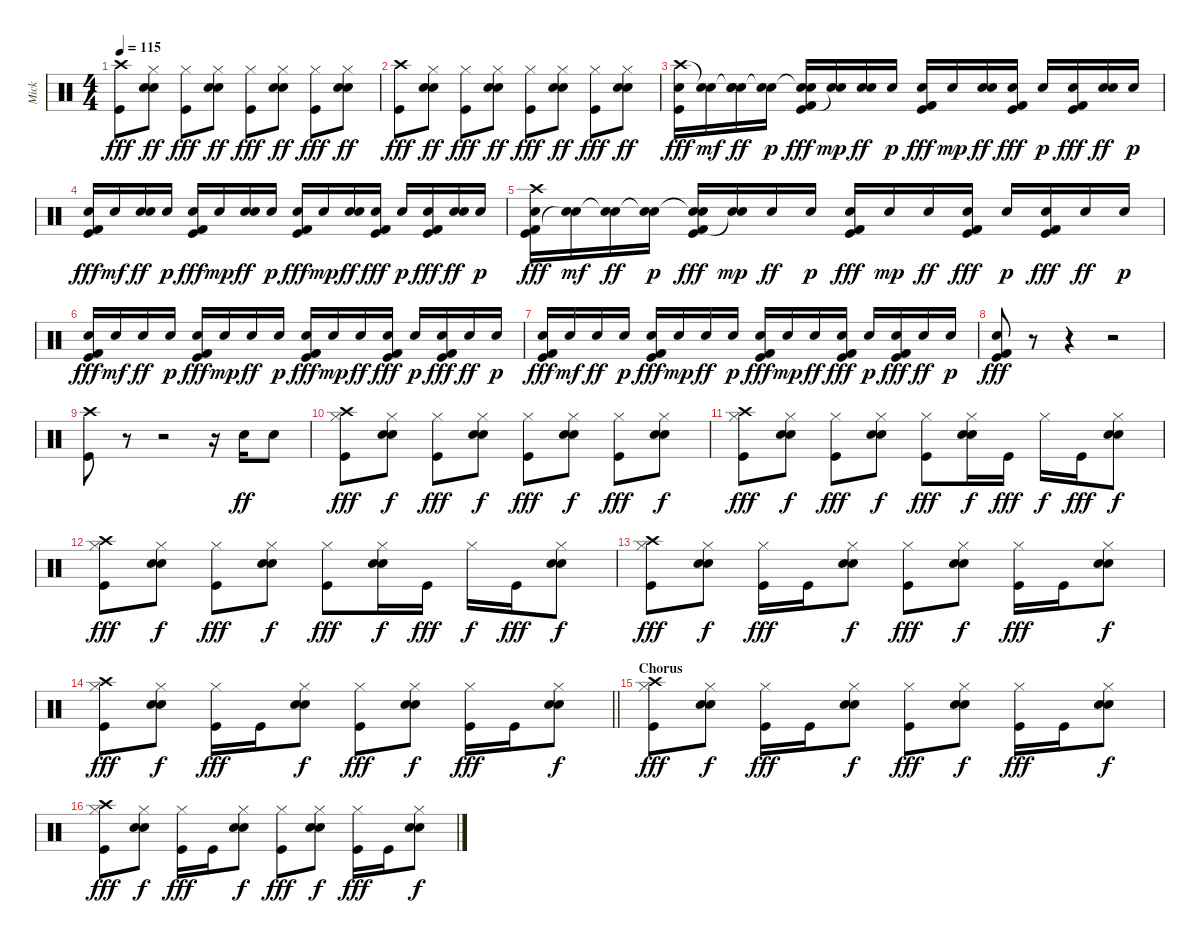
\track ("Mick" "Mick") {instrument percussion}
\staff {score}
\articulation defaults
\ts (4 4)
\tempo 115
\clef neutral
\ks c
("Crash high (hit)" "Kick (hit)").8{dy fff} ("Hand Clap (hit)" "Hi-Hat (closed)" "Electric Snare (hit)").8{dy ff} ("Hi-Hat (closed)" "Kick (hit)").8{dy fff} ("Hand Clap (hit)" "Hi-Hat (closed)" "Electric Snare (hit)").8{dy ff} ("Hi-Hat (closed)" "Kick (hit)").8{dy fff} ("Hand Clap (hit)" "Hi-Hat (closed)" "Electric Snare (hit)").8{dy ff} ("Hi-Hat (closed)" "Kick (hit)").8{dy fff} ("Hand Clap (hit)" "Hi-Hat (closed)" "Electric Snare (hit)").8{dy ff} |
("Crash high (hit)" "Kick (hit)").8{dy fff} ("Hand Clap (hit)" "Hi-Hat (closed)" "Electric Snare (hit)").8{dy ff} ("Hi-Hat (closed)" "Kick (hit)").8{dy fff} ("Hand Clap (hit)" "Hi-Hat (closed)" "Electric Snare (hit)").8{dy ff} ("Hi-Hat (closed)" "Kick (hit)").8{dy fff} ("Hand Clap (hit)" "Hi-Hat (closed)" "Electric Snare (hit)").8{dy ff} ("Hi-Hat (closed)" "Kick (hit)").8{dy fff} ("Hand Clap (hit)" "Hi-Hat (closed)" "Electric Snare (hit)").8{dy ff} |
("Crash high (hit)" "Electric Snare (hit)" "Kick (hit)").16{dy fff} ("Snare (hit)"{t} "Electric Snare (hit)").16{dy mf} ("Hand Clap (hit)" "Snare (hit)"{t} "Electric Snare (hit)").16{dy ff} ("Snare (hit)"{t} "Electric Snare (hit)").16{dy p} ("Kick (hit) 2" "Snare (hit)"{t} "Electric Snare (hit)" "Kick (hit)").16{dy fff} ("Snare (hit)"{t} "Electric Snare (hit)").16{dy mp} ("Hand Clap (hit)" "Electric Snare (hit)").16{dy ff} "Electric Snare (hit)".16{dy p} ("Kick (hit) 2" "Electric Snare (hit)" "Kick (hit)").16{dy fff} "Electric Snare (hit)".16{dy mp} ("Hand Clap (hit)" "Electric Snare (hit)").16{dy ff} ("Kick (hit) 2" "Electric Snare (hit)" "Kick (hit)").16{dy fff} "Electric Snare (hit)".16{dy p} ("Kick (hit) 2" "Electric Snare (hit)" "Kick (hit)").16{dy fff} ("Hand Clap (hit)" "Electric Snare (hit)").16{dy ff} "Electric Snare (hit)".16{dy p} |
("Kick (hit) 2" "Electric Snare (hit)" "Kick (hit)").16{dy fff} "Electric Snare (hit)".16{dy mf} ("Hand Clap (hit)" "Electric Snare (hit)").16{dy ff} "Electric Snare (hit)".16{dy p} ("Kick (hit) 2" "Electric Snare (hit)" "Kick (hit)").16{dy fff} "Electric Snare (hit)".16{dy mp} ("Hand Clap (hit)" "Electric Snare (hit)").16{dy ff} "Electric Snare (hit)".16{dy p} ("Kick (hit) 2" "Electric Snare (hit)" "Kick (hit)").16{dy fff} "Electric Snare (hit)".16{dy mp} ("Hand Clap (hit)" "Electric Snare (hit)").16{dy ff} ("Kick (hit) 2" "Electric Snare (hit)" "Kick (hit)").16{dy fff} "Electric Snare (hit)".16{dy p} ("Kick (hit) 2" "Electric Snare (hit)" "Kick (hit)").16{dy fff} ("Hand Clap (hit)" "Electric Snare (hit)").16{dy ff} "Electric Snare (hit)".16{dy p} |
("Kick (hit) 2" "Crash high (hit)" "Electric Snare (hit)" "Kick (hit)").16{dy fff} ("Snare (hit)"{t} "Electric Snare (hit)").16{dy mf} ("Snare (hit)"{t} "Electric Snare (hit)").16{dy ff} ("Snare (hit)"{t} "Electric Snare (hit)").16{dy p} ("Kick (hit) 2" "Snare (hit)"{t} "Electric Snare (hit)" "Kick (hit)").16{dy fff} ("Snare (hit)"{t} "Electric Snare (hit)").16{dy mp} "Electric Snare (hit)".16{dy ff} "Electric Snare (hit)".16{dy p} ("Kick (hit) 2" "Electric Snare (hit)" "Kick (hit)").16{dy fff} "Electric Snare (hit)".16{dy mp} "Electric Snare (hit)".16{dy ff} ("Kick (hit) 2" "Electric Snare (hit)" "Kick (hit)").16{dy fff} "Electric Snare (hit)".16{dy p} ("Kick (hit) 2" "Electric Snare (hit)" "Kick (hit)").16{dy fff} "Electric Snare (hit)".16{dy ff} "Electric Snare (hit)".16{dy p} |
("Kick (hit) 2" "Electric Snare (hit)" "Kick (hit)").16{dy fff} "Electric Snare (hit)".16{dy mf} "Electric Snare (hit)".16{dy ff} "Electric Snare (hit)".16{dy p} ("Kick (hit) 2" "Electric Snare (hit)" "Kick (hit)").16{dy fff} "Electric Snare (hit)".16{dy mp} "Electric Snare (hit)".16{dy ff} "Electric Snare (hit)".16{dy p} ("Kick (hit) 2" "Electric Snare (hit)" "Kick (hit)").16{dy fff} "Electric Snare (hit)".16{dy mp} "Electric Snare (hit)".16{dy ff} ("Kick (hit) 2" "Electric Snare (hit)" "Kick (hit)").16{dy fff} "Electric Snare (hit)".16{dy p} ("Kick (hit) 2" "Electric Snare (hit)" "Kick (hit)").16{dy fff} "Electric Snare (hit)".16{dy ff} "Electric Snare (hit)".16{dy p} |
("Kick (hit) 2" "Electric Snare (hit)" "Kick (hit)").16{dy fff} "Electric Snare (hit)".16{dy mf} "Electric Snare (hit)".16{dy ff} "Electric Snare (hit)".16{dy p} ("Kick (hit) 2" "Electric Snare (hit)" "Kick (hit)").16{dy fff} "Electric Snare (hit)".16{dy mp} "Electric Snare (hit)".16{dy ff} "Electric Snare (hit)".16{dy p} ("Kick (hit) 2" "Electric Snare (hit)" "Kick (hit)").16{dy fff} "Electric Snare (hit)".16{dy mp} "Electric Snare (hit)".16{dy ff} ("Kick (hit) 2" "Electric Snare (hit)" "Kick (hit)").16{dy fff} "Electric Snare (hit)".16{dy p} ("Kick (hit) 2" "Electric Snare (hit)" "Kick (hit)").16{dy fff} "Electric Snare (hit)".16{dy ff} "Electric Snare (hit)".16{dy p} |
("Kick (hit) 2" "Electric Snare (hit)" "Kick (hit)").8{dy fff} r.8 r.4 r.2 |
("Crash high (hit)" "Kick (hit)").8 r.8 r.2 r.16 "Electric Snare (hit)".16{dy ff} "Electric Snare (hit)".8 |
("Crash high (hit)" "Hi-Hat (closed)" "Kick (hit)").8{dy fff} ("Hand Clap (hit)" "Hi-Hat (closed)" "Electric Snare (hit)").8{dy f} ("Hi-Hat (closed)" "Kick (hit)").8{dy fff} ("Hand Clap (hit)" "Hi-Hat (closed)" "Electric Snare (hit)").8{dy f} ("Hi-Hat (closed)" "Kick (hit)").8{dy fff} ("Hand Clap (hit)" "Hi-Hat (closed)" "Electric Snare (hit)").8{dy f} ("Hi-Hat (closed)" "Kick (hit)").8{dy fff} ("Hand Clap (hit)" "Hi-Hat (closed)" "Electric Snare (hit)").8{dy f} |
("Crash high (hit)" "Hi-Hat (closed)" "Kick (hit)").8{dy fff} ("Hand Clap (hit)" "Hi-Hat (closed)" "Electric Snare (hit)").8{dy f} ("Hi-Hat (closed)" "Kick (hit)").8{dy fff} ("Hand Clap (hit)" "Hi-Hat (closed)" "Electric Snare (hit)").8{dy f} ("Hi-Hat (closed)" "Kick (hit)").8{dy fff} ("Hand Clap (hit)" "Hi-Hat (closed)" "Electric Snare (hit)").16{dy f} "Kick (hit)".16{dy fff} "Hi-Hat (closed)".16{dy f} "Kick (hit)".16{dy fff} ("Hand Clap (hit)" "Hi-Hat (closed)" "Electric Snare (hit)").8{dy f} |
("Crash high (hit)" "Hi-Hat (closed)" "Kick (hit)").8{dy fff} ("Hand Clap (hit)" "Hi-Hat (closed)" "Electric Snare (hit)").8{dy f} ("Hi-Hat (closed)" "Kick (hit)").8{dy fff} ("Hand Clap (hit)" "Hi-Hat (closed)" "Electric Snare (hit)").8{dy f} ("Hi-Hat (closed)" "Kick (hit)").8{dy fff} ("Hand Clap (hit)" "Hi-Hat (closed)" "Electric Snare (hit)").16{dy f} "Kick (hit)".16{dy fff} "Hi-Hat (closed)".16{dy f} "Kick (hit)".16{dy fff} ("Hand Clap (hit)" "Hi-Hat (closed)" "Electric Snare (hit)").8{dy f} |
("Crash high (hit)" "Hi-Hat (closed)" "Kick (hit)").8{dy fff} ("Hand Clap (hit)" "Hi-Hat (closed)" "Electric Snare (hit)").8{dy f} ("Hi-Hat (closed)" "Kick (hit)").16{dy fff} "Kick (hit)".16 ("Hand Clap (hit)" "Hi-Hat (closed)" "Electric Snare (hit)").8{dy f} ("Hi-Hat (closed)" "Kick (hit)").8{dy fff} ("Hand Clap (hit)" "Hi-Hat (closed)" "Electric Snare (hit)").8{dy f} ("Hi-Hat (closed)" "Kick (hit)").16{dy fff} "Kick (hit)".16 ("Hand Clap (hit)" "Hi-Hat (closed)" "Electric Snare (hit)").8{dy f} |
\barLineRight lightlight
("Crash high (hit)" "Hi-Hat (closed)" "Kick (hit)").8{dy fff} ("Hand Clap (hit)" "Hi-Hat (closed)" "Electric Snare (hit)").8{dy f} ("Hi-Hat (closed)" "Kick (hit)").16{dy fff} "Kick (hit)".16 ("Hand Clap (hit)" "Hi-Hat (closed)" "Electric Snare (hit)").8{dy f} ("Hi-Hat (closed)" "Kick (hit)").8{dy fff} ("Hand Clap (hit)" "Hi-Hat (closed)" "Electric Snare (hit)").8{dy f} ("Hi-Hat (closed)" "Kick (hit)").16{dy fff} "Kick (hit)".16 ("Hand Clap (hit)" "Hi-Hat (closed)" "Electric Snare (hit)").8{dy f} |
\section ("" "Chorus")
("Crash high (hit)" "Hi-Hat (closed)" "Kick (hit)").8{dy fff} ("Hand Clap (hit)" "Hi-Hat (closed)" "Electric Snare (hit)").8{dy f} ("Hi-Hat (closed)" "Kick (hit)").16{dy fff} "Kick (hit)".16 ("Hand Clap (hit)" "Hi-Hat (closed)" "Electric Snare (hit)").8{dy f} ("Hi-Hat (closed)" "Kick (hit)").8{dy fff} ("Hand Clap (hit)" "Hi-Hat (closed)" "Electric Snare (hit)").8{dy f} ("Hi-Hat (closed)" "Kick (hit)").16{dy fff} "Kick (hit)".16 ("Hand Clap (hit)" "Hi-Hat (closed)" "Electric Snare (hit)").8{dy f} |
("Crash high (hit)" "Hi-Hat (closed)" "Kick (hit)").8{dy fff} ("Hand Clap (hit)" "Hi-Hat (closed)" "Electric Snare (hit)").8{dy f} ("Hi-Hat (closed)" "Kick (hit)").16{dy fff} "Kick (hit)".16 ("Hand Clap (hit)" "Hi-Hat (closed)" "Electric Snare (hit)").8{dy f} ("Hi-Hat (closed)" "Kick (hit)").8{dy fff} ("Hand Clap (hit)" "Hi-Hat (closed)" "Electric Snare (hit)").8{dy f} ("Hi-Hat (closed)" "Kick (hit)").16{dy fff} "Kick (hit)".16 ("Hand Clap (hit)" "Hi-Hat (closed)" "Electric Snare (hit)").8{dy f}
